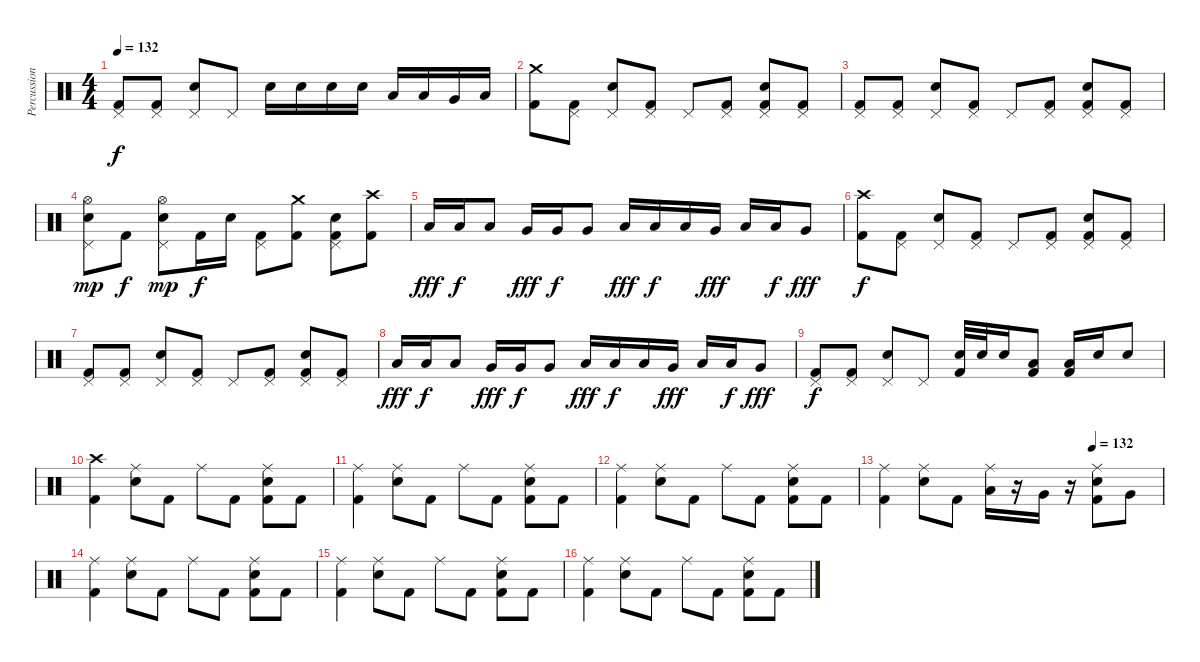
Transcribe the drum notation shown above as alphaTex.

\track ("Percussions" "Percussion") {instrument percussion}
\staff {score}
\articulation defaults
\ts (4 4)
\tempo 132
\clef neutral
\ks c
("Pedal Hi-Hat (hit)" "Kick (hit) 2").8{dy f} ("Pedal Hi-Hat (hit)" "Kick (hit) 2").8 ("Pedal Hi-Hat (hit)" "Electric Snare (hit)").8 "Pedal Hi-Hat (hit)".8 "Electric Snare (hit)".16 "Electric Snare (hit)".16 "Electric Snare (hit)".16 "Electric Snare (hit)".16 "Low Tom (hit)".16 "Low Tom (hit)".16 "Very Low Tom (hit)".16 "Low Floor Tom (hit)".16 |
("Crash medium (hit)" "Kick (hit) 2").8 ("Pedal Hi-Hat (hit)" "Kick (hit) 2").8 ("Pedal Hi-Hat (hit)" "Electric Snare (hit)").8 ("Pedal Hi-Hat (hit)" "Kick (hit) 2").8 "Pedal Hi-Hat (hit)".8 ("Pedal Hi-Hat (hit)" "Kick (hit) 2").8 ("Pedal Hi-Hat (hit)" "Electric Snare (hit)" "Kick (hit) 2").8 ("Pedal Hi-Hat (hit)" "Kick (hit) 2").8 |
("Pedal Hi-Hat (hit)" "Kick (hit) 2").8 ("Pedal Hi-Hat (hit)" "Kick (hit) 2").8 ("Pedal Hi-Hat (hit)" "Electric Snare (hit)").8 ("Pedal Hi-Hat (hit)" "Kick (hit) 2").8 "Pedal Hi-Hat (hit)".8 ("Pedal Hi-Hat (hit)" "Kick (hit) 2").8 ("Pedal Hi-Hat (hit)" "Electric Snare (hit)" "Kick (hit) 2").8 ("Pedal Hi-Hat (hit)" "Kick (hit) 2").8 |
("Pedal Hi-Hat (hit)" "Hi-Hat (open)" "Electric Snare (hit)").8{dy mp} "Kick (hit) 2".8{dy f} ("Pedal Hi-Hat (hit)" "Hi-Hat (open)" "Electric Snare (hit)").8{dy mp} "Kick (hit) 2".16{dy f} "Electric Snare (hit)".16 ("Pedal Hi-Hat (hit)" "Kick (hit) 2").8 ("Crash medium (hit)" "Kick (hit) 2").8 ("Pedal Hi-Hat (hit)" "Electric Snare (hit)" "Kick (hit) 2").8 ("Crash high (hit)" "Kick (hit) 2").8 |
"Low Tom (hit)".16{dy fff} "Low Tom (hit)".16{dy f} "Low Tom (hit)".8 "Very Low Tom (hit)".16{dy fff} "Very Low Tom (hit)".16{dy f} "Very Low Tom (hit)".8 "Low Floor Tom (hit)".16{dy fff} "Low Floor Tom (hit)".16{dy f} "Low Floor Tom (hit)".16 "Very Low Tom (hit)".16{dy fff} "Low Floor Tom (hit)".16 "Low Floor Tom (hit)".16{dy f} "Very Low Tom (hit)".8{dy fff} |
("Crash high (hit)" "Kick (hit) 2").8{dy f} ("Pedal Hi-Hat (hit)" "Kick (hit) 2").8 ("Pedal Hi-Hat (hit)" "Electric Snare (hit)").8 ("Pedal Hi-Hat (hit)" "Kick (hit) 2").8 "Pedal Hi-Hat (hit)".8 ("Pedal Hi-Hat (hit)" "Kick (hit) 2").8 ("Pedal Hi-Hat (hit)" "Electric Snare (hit)" "Kick (hit) 2").8 ("Pedal Hi-Hat (hit)" "Kick (hit) 2").8 |
("Pedal Hi-Hat (hit)" "Kick (hit) 2").8 ("Pedal Hi-Hat (hit)" "Kick (hit) 2").8 ("Pedal Hi-Hat (hit)" "Electric Snare (hit)").8 ("Pedal Hi-Hat (hit)" "Kick (hit) 2").8 "Pedal Hi-Hat (hit)".8 ("Pedal Hi-Hat (hit)" "Kick (hit) 2").8 ("Pedal Hi-Hat (hit)" "Electric Snare (hit)" "Kick (hit) 2").8 ("Pedal Hi-Hat (hit)" "Kick (hit) 2").8 |
"Low Tom (hit)".16{dy fff} "Low Tom (hit)".16{dy f} "Low Tom (hit)".8 "Very Low Tom (hit)".16{dy fff} "Very Low Tom (hit)".16{dy f} "Very Low Tom (hit)".8 "Low Floor Tom (hit)".16{dy fff} "Low Floor Tom (hit)".16{dy f} "Low Floor Tom (hit)".16 "Very Low Tom (hit)".16{dy fff} "Low Floor Tom (hit)".16 "Low Floor Tom (hit)".16{dy f} "Very Low Tom (hit)".8{dy fff} |
("Pedal Hi-Hat (hit)" "Kick (hit) 2").8{dy f} ("Pedal Hi-Hat (hit)" "Kick (hit) 2").8 ("Pedal Hi-Hat (hit)" "Electric Snare (hit)").8 "Pedal Hi-Hat (hit)".8 ("Electric Snare (hit)" "Kick (hit) 2").32 "Electric Snare (hit)".32 "Electric Snare (hit)".16 ("Low Floor Tom (hit)" "Kick (hit) 2").8 ("Low Floor Tom (hit)" "Kick (hit) 2").16 "Electric Snare (hit)".16 "Electric Snare (hit)".8 |
("Crash high (hit)" "Kick (hit) 2").4 ("Ride (middle)" "Electric Snare (hit)").8 "Kick (hit) 2".8 "Ride (middle)".8 "Kick (hit) 2".8 ("Ride (middle)" "Electric Snare (hit)" "Kick (hit) 2").8 "Kick (hit) 2".8 |
("Ride (middle)" "Kick (hit) 2").4 ("Ride (middle)" "Electric Snare (hit)").8 "Kick (hit) 2".8 "Ride (middle)".8 "Kick (hit) 2".8 ("Ride (middle)" "Electric Snare (hit)" "Kick (hit) 2").8 "Kick (hit) 2".8 |
("Ride (middle)" "Kick (hit) 2").4 ("Ride (middle)" "Electric Snare (hit)").8 "Kick (hit) 2".8 "Ride (middle)".8 "Kick (hit) 2".8 ("Ride (middle)" "Electric Snare (hit)" "Kick (hit) 2").8 "Kick (hit) 2".8 |
\tempo (132 0.75)
("Ride (middle)" "Kick (hit) 2").4 ("Ride (middle)" "Electric Snare (hit)").8 "Kick (hit) 2".8 ("Ride (middle)" "Low Tom (hit)").16 r.16 "Very Low Tom (hit)".16 r.16 ("Ride (middle)" "Electric Snare (hit)" "Kick (hit) 2").8 "Very Low Tom (hit)".8 |
("Ride (middle)" "Kick (hit) 2").4 ("Ride (middle)" "Electric Snare (hit)").8 "Kick (hit) 2".8 "Ride (middle)".8 "Kick (hit) 2".8 ("Ride (middle)" "Electric Snare (hit)" "Kick (hit) 2").8 "Kick (hit) 2".8 |
("Ride (middle)" "Kick (hit) 2").4 ("Ride (middle)" "Electric Snare (hit)").8 "Kick (hit) 2".8 "Ride (middle)".8 "Kick (hit) 2".8 ("Ride (middle)" "Electric Snare (hit)" "Kick (hit) 2").8 "Kick (hit) 2".8 |
("Ride (middle)" "Kick (hit) 2").4 ("Ride (middle)" "Electric Snare (hit)").8 "Kick (hit) 2".8 "Ride (middle)".8 "Kick (hit) 2".8 ("Ride (middle)" "Electric Snare (hit)" "Kick (hit) 2").8 "Kick (hit) 2".8
